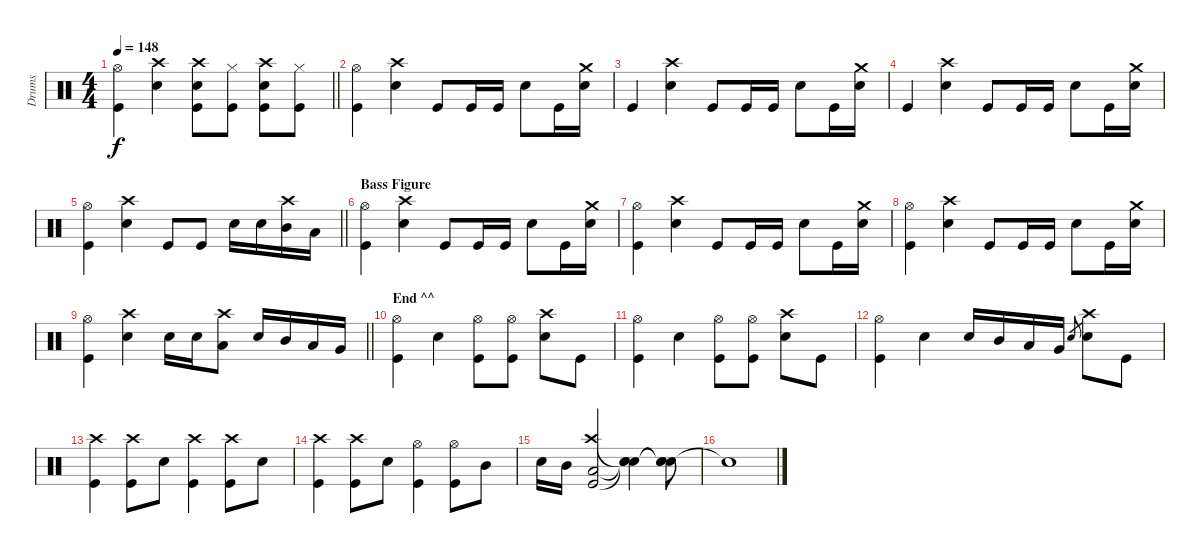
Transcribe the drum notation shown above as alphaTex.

\track ("Drums" "Drums") {instrument percussion}
\staff {score}
\articulation defaults
\ts (4 4)
\tempo 148
\clef neutral
\barLineRight lightlight
\ks c
("Hi-Hat (open)" "Kick (hit)").4{dy f} ("Crash high (hit)" "Electric Snare (hit)").4 ("Crash high (hit)" "Electric Snare (hit)" "Kick (hit)").8 ("Hi-Hat (closed)" "Kick (hit)").8 ("Crash high (hit)" "Electric Snare (hit)" "Kick (hit)").8 ("Hi-Hat (closed)" "Kick (hit)").8 |
("Hi-Hat (open)" "Kick (hit)").4 ("Crash high (hit)" "Electric Snare (hit)").4 "Kick (hit)".8 "Kick (hit)".16 "Kick (hit)".16 "Electric Snare (hit)".8 "Kick (hit)".16 ("Crash medium (hit)" "Electric Snare (hit)").16 |
"Kick (hit)".4 ("Crash high (hit)" "Electric Snare (hit)").4 "Kick (hit)".8 "Kick (hit)".16 "Kick (hit)".16 "Electric Snare (hit)".8 "Kick (hit)".16 ("Crash medium (hit)" "Electric Snare (hit)").16 |
"Kick (hit)".4 ("Crash high (hit)" "Electric Snare (hit)").4 "Kick (hit)".8 "Kick (hit)".16 "Kick (hit)".16 "Electric Snare (hit)".8 "Kick (hit)".16 ("Crash medium (hit)" "Electric Snare (hit)").16 |
\barLineRight lightlight
("Hi-Hat (open)" "Kick (hit)").4 ("Crash high (hit)" "Electric Snare (hit)").4 "Kick (hit)".8 "Kick (hit)".8 "Electric Snare (hit)".16 "Electric Snare (hit)".16 ("Crash high (hit)" "Mid Tom (hit)").16 "Low Tom (hit)".16 |
\section ("" "Bass Figure")
("Hi-Hat (open)" "Kick (hit)").4 ("Crash high (hit)" "Electric Snare (hit)").4 "Kick (hit)".8 "Kick (hit)".16 "Kick (hit)".16 "Electric Snare (hit)".8 "Kick (hit)".16 ("Crash medium (hit)" "Electric Snare (hit)").16 |
("Hi-Hat (open)" "Kick (hit)").4 ("Crash high (hit)" "Electric Snare (hit)").4 "Kick (hit)".8 "Kick (hit)".16 "Kick (hit)".16 "Electric Snare (hit)".8 "Kick (hit)".16 ("Crash medium (hit)" "Electric Snare (hit)").16 |
("Hi-Hat (open)" "Kick (hit)").4 ("Crash high (hit)" "Electric Snare (hit)").4 "Kick (hit)".8 "Kick (hit)".16 "Kick (hit)".16 "Electric Snare (hit)".8 "Kick (hit)".16 ("Crash medium (hit)" "Electric Snare (hit)").16 |
\barLineRight lightlight
("Hi-Hat (open)" "Kick (hit)").4 ("Crash high (hit)" "Electric Snare (hit)").4 "Electric Snare (hit)".16 "Electric Snare (hit)".16 ("Crash high (hit)" "Low Floor Tom (hit)").8 "Electric Snare (hit)".16 "Mid Tom (hit)".16 "Low Tom (hit)".16 "Very Low Tom (hit)".16 |
\section ("" "End ^^")
("Hi-Hat (open)" "Kick (hit)").4 "Electric Snare (hit)".4 ("Hi-Hat (open)" "Kick (hit)").8 ("Hi-Hat (open)" "Kick (hit)").8 ("Crash high (hit)" "Electric Snare (hit)").8 "Kick (hit)".8 |
("Hi-Hat (open)" "Kick (hit)").4 "Electric Snare (hit)".4 ("Hi-Hat (open)" "Kick (hit)").8 ("Hi-Hat (open)" "Kick (hit)").8 ("Crash high (hit)" "Electric Snare (hit)").8 "Kick (hit)".8 |
("Hi-Hat (open)" "Kick (hit)").4 "Electric Snare (hit)".4 "Electric Snare (hit)".16 "Mid Tom (hit)".16 "Low Tom (hit)".16 "Very Low Tom (hit)".16 "Electric Snare (hit)".8{gr} ("Crash high (hit)" "Electric Snare (hit)").8 "Kick (hit)".8 |
("Crash high (hit)" "Kick (hit)").4 ("Crash high (hit)" "Kick (hit)").8 "Electric Snare (hit)".8 ("Crash high (hit)" "Kick (hit)").4 ("Crash high (hit)" "Kick (hit)").8 "Electric Snare (hit)".8 |
("Crash high (hit)" "Kick (hit)").4 ("Crash high (hit)" "Kick (hit)").8 "Electric Snare (hit)".8 ("Hi-Hat (open)" "Kick (hit)").4 ("Hi-Hat (open)" "Kick (hit)").8 "Mid Tom (hit)".8 |
"Electric Snare (hit)".16 "Mid Tom (hit)".16 ("Crash high (hit)" "Low Tom (hit)" "Kick (hit)").2 ("Snare (hit)"{t} "Snare (hit)"{t} "Snare (hit)"{t}).4 ("Snare (hit)"{t} "Snare (hit)"{t} "Snare (hit)"{t}).8 |
"Snare (hit)"{t}.1
